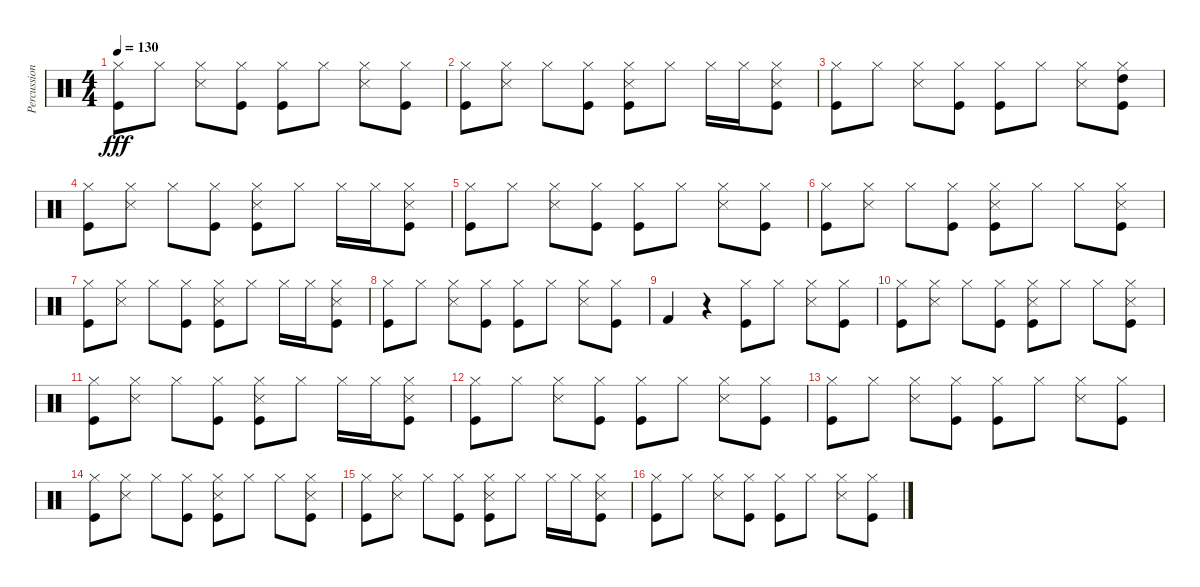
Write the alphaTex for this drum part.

\track ("Percussions 2" "Percussion") {instrument percussion}
\staff {score}
\articulation defaults
\ts (4 4)
\tempo 130
\clef neutral
\ks c
("Kick (hit)" "Hi-Hat (closed)").8{dy fff} "Hi-Hat (closed)".8 ("Snare (side stick) 3" "Hi-Hat (closed)").8 ("Kick (hit)" "Hi-Hat (closed)").8 ("Kick (hit)" "Hi-Hat (closed)").8 "Hi-Hat (closed)".8 ("Snare (side stick) 3" "Hi-Hat (closed)").8 ("Kick (hit)" "Hi-Hat (closed)").8 |
("Kick (hit)" "Hi-Hat (closed)").8 ("Snare (side stick) 3" "Hi-Hat (closed)").8 "Hi-Hat (closed)".8 ("Kick (hit)" "Hi-Hat (closed)").8 ("Kick (hit)" "Snare (side stick) 3" "Hi-Hat (closed)").8 "Hi-Hat (closed)".8 "Hi-Hat (closed)".16 "Hi-Hat (closed)".16 ("Kick (hit)" "Snare (side stick) 3" "Hi-Hat (closed)").8 |
("Kick (hit)" "Hi-Hat (closed)").8 "Hi-Hat (closed)".8 ("Snare (side stick) 3" "Hi-Hat (closed)").8 ("Kick (hit)" "Hi-Hat (closed)").8 ("Kick (hit)" "Hi-Hat (closed)").8 "Hi-Hat (closed)".8 ("Snare (side stick) 3" "Hi-Hat (closed)").8 ("Kick (hit)" "Hi-Hat (closed)" "High Tom (hit)").8 |
("Kick (hit)" "Hi-Hat (closed)").8 ("Snare (side stick) 3" "Hi-Hat (closed)").8 "Hi-Hat (closed)".8 ("Kick (hit)" "Hi-Hat (closed)").8 ("Kick (hit)" "Snare (side stick) 3" "Hi-Hat (closed)").8 "Hi-Hat (closed)".8 "Hi-Hat (closed)".16 "Hi-Hat (closed)".16 ("Kick (hit)" "Snare (side stick) 3" "Hi-Hat (closed)").8 |
("Kick (hit)" "Hi-Hat (closed)").8 "Hi-Hat (closed)".8 ("Snare (side stick) 3" "Hi-Hat (closed)").8 ("Kick (hit)" "Hi-Hat (closed)").8 ("Kick (hit)" "Hi-Hat (closed)").8 "Hi-Hat (closed)".8 ("Snare (side stick) 3" "Hi-Hat (closed)").8 ("Kick (hit)" "Hi-Hat (closed)").8 |
("Kick (hit)" "Hi-Hat (closed)").8 ("Snare (side stick) 3" "Hi-Hat (closed)").8 "Hi-Hat (closed)".8 ("Kick (hit)" "Hi-Hat (closed)").8 ("Kick (hit)" "Snare (side stick) 3" "Hi-Hat (closed)").8 "Hi-Hat (closed)".8 "Hi-Hat (closed)".8 ("Kick (hit)" "Snare (side stick) 3" "Hi-Hat (closed)").8 |
("Kick (hit)" "Hi-Hat (closed)").8 ("Snare (side stick) 3" "Hi-Hat (closed)").8 "Hi-Hat (closed)".8 ("Kick (hit)" "Hi-Hat (closed)").8 ("Kick (hit)" "Snare (side stick) 3" "Hi-Hat (closed)").8 "Hi-Hat (closed)".8 "Hi-Hat (closed)".16 "Hi-Hat (closed)".16 ("Kick (hit)" "Snare (side stick) 3" "Hi-Hat (closed)").8 |
("Kick (hit)" "Hi-Hat (closed)").8 "Hi-Hat (closed)".8 ("Snare (side stick) 3" "Hi-Hat (closed)").8 ("Kick (hit)" "Hi-Hat (closed)").8 ("Kick (hit)" "Hi-Hat (closed)").8 "Hi-Hat (closed)".8 ("Snare (side stick) 3" "Hi-Hat (closed)").8 ("Kick (hit)" "Hi-Hat (closed)").8 |
"Kick (hit) 2".4 r.4 ("Kick (hit)" "Hi-Hat (closed)").8 "Hi-Hat (closed)".8 ("Snare (side stick) 3" "Hi-Hat (closed)").8 ("Kick (hit)" "Hi-Hat (closed)").8 |
("Kick (hit)" "Hi-Hat (closed)").8 ("Snare (side stick) 3" "Hi-Hat (closed)").8 "Hi-Hat (closed)".8 ("Kick (hit)" "Hi-Hat (closed)").8 ("Kick (hit)" "Snare (side stick) 3" "Hi-Hat (closed)").8 "Hi-Hat (closed)".8 "Hi-Hat (closed)".8 ("Kick (hit)" "Snare (side stick) 3" "Hi-Hat (closed)").8 |
("Kick (hit)" "Hi-Hat (closed)").8 ("Snare (side stick) 3" "Hi-Hat (closed)").8 "Hi-Hat (closed)".8 ("Kick (hit)" "Hi-Hat (closed)").8 ("Kick (hit)" "Snare (side stick) 3" "Hi-Hat (closed)").8 "Hi-Hat (closed)".8 "Hi-Hat (closed)".16 "Hi-Hat (closed)".16 ("Kick (hit)" "Snare (side stick) 3" "Hi-Hat (closed)").8 |
("Kick (hit)" "Hi-Hat (closed)").8 "Hi-Hat (closed)".8 ("Snare (side stick) 3" "Hi-Hat (closed)").8 ("Kick (hit)" "Hi-Hat (closed)").8 ("Kick (hit)" "Hi-Hat (closed)").8 "Hi-Hat (closed)".8 ("Snare (side stick) 3" "Hi-Hat (closed)").8 ("Kick (hit)" "Hi-Hat (closed)").8 |
("Kick (hit)" "Hi-Hat (closed)").8 "Hi-Hat (closed)".8 ("Snare (side stick) 3" "Hi-Hat (closed)").8 ("Kick (hit)" "Hi-Hat (closed)").8 ("Kick (hit)" "Hi-Hat (closed)").8 "Hi-Hat (closed)".8 ("Snare (side stick) 3" "Hi-Hat (closed)").8 ("Kick (hit)" "Hi-Hat (closed)").8 |
("Kick (hit)" "Hi-Hat (closed)").8 ("Snare (side stick) 3" "Hi-Hat (closed)").8 "Hi-Hat (closed)".8 ("Kick (hit)" "Hi-Hat (closed)").8 ("Kick (hit)" "Snare (side stick) 3" "Hi-Hat (closed)").8 "Hi-Hat (closed)".8 "Hi-Hat (closed)".8 ("Kick (hit)" "Snare (side stick) 3" "Hi-Hat (closed)").8 |
("Kick (hit)" "Hi-Hat (closed)").8 ("Snare (side stick) 3" "Hi-Hat (closed)").8 "Hi-Hat (closed)".8 ("Kick (hit)" "Hi-Hat (closed)").8 ("Kick (hit)" "Snare (side stick) 3" "Hi-Hat (closed)").8 "Hi-Hat (closed)".8 "Hi-Hat (closed)".16 "Hi-Hat (closed)".16 ("Kick (hit)" "Snare (side stick) 3" "Hi-Hat (closed)").8 |
("Kick (hit)" "Hi-Hat (closed)").8 "Hi-Hat (closed)".8 ("Snare (side stick) 3" "Hi-Hat (closed)").8 ("Kick (hit)" "Hi-Hat (closed)").8 ("Kick (hit)" "Hi-Hat (closed)").8 "Hi-Hat (closed)".8 ("Snare (side stick) 3" "Hi-Hat (closed)").8 ("Kick (hit)" "Hi-Hat (closed)").8
